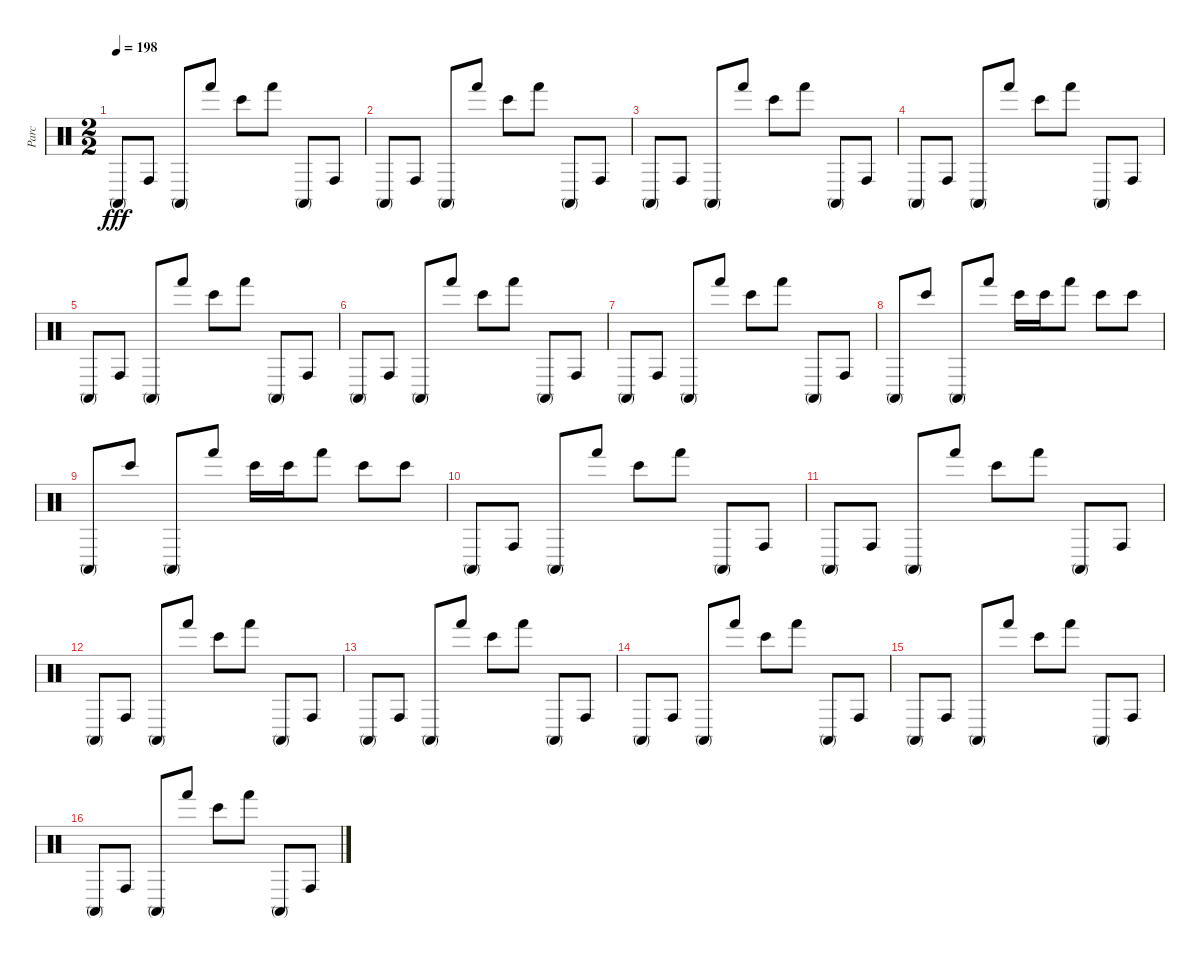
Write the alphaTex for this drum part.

\track ("Parc" "Parc") {instrument percussion}
\staff {score}
\articulation defaults
\ts (2 2)
\tempo 198
\clef neutral
\ks c "Conga high (mute)".8{dy fff} "Conga high (hit)".8 "Conga high (mute)".8 "Hand (hit)".8 "Bongo High (hit)".8 "Hand (hit)".8 "Conga high (mute)".8 "Conga high (hit)".8
|
"Conga high (mute)".8 "Conga high (hit)".8 "Conga high (mute)".8 "Hand (hit)".8 "Bongo High (hit)".8 "Hand (hit)".8 "Conga high (mute)".8 "Conga high (hit)".8 |
"Conga high (mute)".8 "Conga high (hit)".8 "Conga high (mute)".8 "Hand (hit)".8 "Bongo High (hit)".8 "Hand (hit)".8 "Conga high (mute)".8 "Conga high (hit)".8 |
"Conga high (mute)".8 "Conga high (hit)".8 "Conga high (mute)".8 "Hand (hit)".8 "Bongo High (hit)".8 "Hand (hit)".8 "Conga high (mute)".8 "Conga high (hit)".8 |
"Conga high (mute)".8 "Conga high (hit)".8 "Conga high (mute)".8 "Hand (hit)".8 "Bongo High (hit)".8 "Hand (hit)".8 "Conga high (mute)".8 "Conga high (hit)".8 |
"Conga high (mute)".8 "Conga high (hit)".8 "Conga high (mute)".8 "Hand (hit)".8 "Bongo High (hit)".8 "Hand (hit)".8 "Conga high (mute)".8 "Conga high (hit)".8 |
"Conga high (mute)".8 "Conga high (hit)".8 "Conga high (mute)".8 "Hand (hit)".8 "Bongo High (hit)".8 "Hand (hit)".8 "Conga high (mute)".8 "Conga high (hit)".8 |
"Conga high (mute)".8 "Bongo High (hit)".8 "Conga high (mute)".8 "Hand (hit)".8 "Bongo High (hit)".16 "Bongo High (hit)".16 "Hand (hit)".8 "Bongo High (hit)".8 "Bongo High (hit)".8 |
"Conga high (mute)".8 "Bongo High (hit)".8 "Conga high (mute)".8 "Hand (hit)".8 "Bongo High (hit)".16 "Bongo High (hit)".16 "Hand (hit)".8 "Bongo High (hit)".8 "Bongo High (hit)".8 |
"Conga high (mute)".8 "Conga high (hit)".8 "Conga high (mute)".8 "Hand (hit)".8 "Bongo High (hit)".8 "Hand (hit)".8 "Conga high (mute)".8 "Conga high (hit)".8 |
"Conga high (mute)".8 "Conga high (hit)".8 "Conga high (mute)".8 "Hand (hit)".8 "Bongo High (hit)".8 "Hand (hit)".8 "Conga high (mute)".8 "Conga high (hit)".8 |
"Conga high (mute)".8 "Conga high (hit)".8 "Conga high (mute)".8 "Hand (hit)".8 "Bongo High (hit)".8 "Hand (hit)".8 "Conga high (mute)".8 "Conga high (hit)".8 |
"Conga high (mute)".8 "Conga high (hit)".8 "Conga high (mute)".8 "Hand (hit)".8 "Bongo High (hit)".8 "Hand (hit)".8 "Conga high (mute)".8 "Conga high (hit)".8 |
"Conga high (mute)".8 "Conga high (hit)".8 "Conga high (mute)".8 "Hand (hit)".8 "Bongo High (hit)".8 "Hand (hit)".8 "Conga high (mute)".8 "Conga high (hit)".8 |
"Conga high (mute)".8 "Conga high (hit)".8 "Conga high (mute)".8 "Hand (hit)".8 "Bongo High (hit)".8 "Hand (hit)".8 "Conga high (mute)".8 "Conga high (hit)".8 |
"Conga high (mute)".8 "Conga high (hit)".8 "Conga high (mute)".8 "Hand (hit)".8 "Bongo High (hit)".8 "Hand (hit)".8 "Conga high (mute)".8 "Conga high (hit)".8
